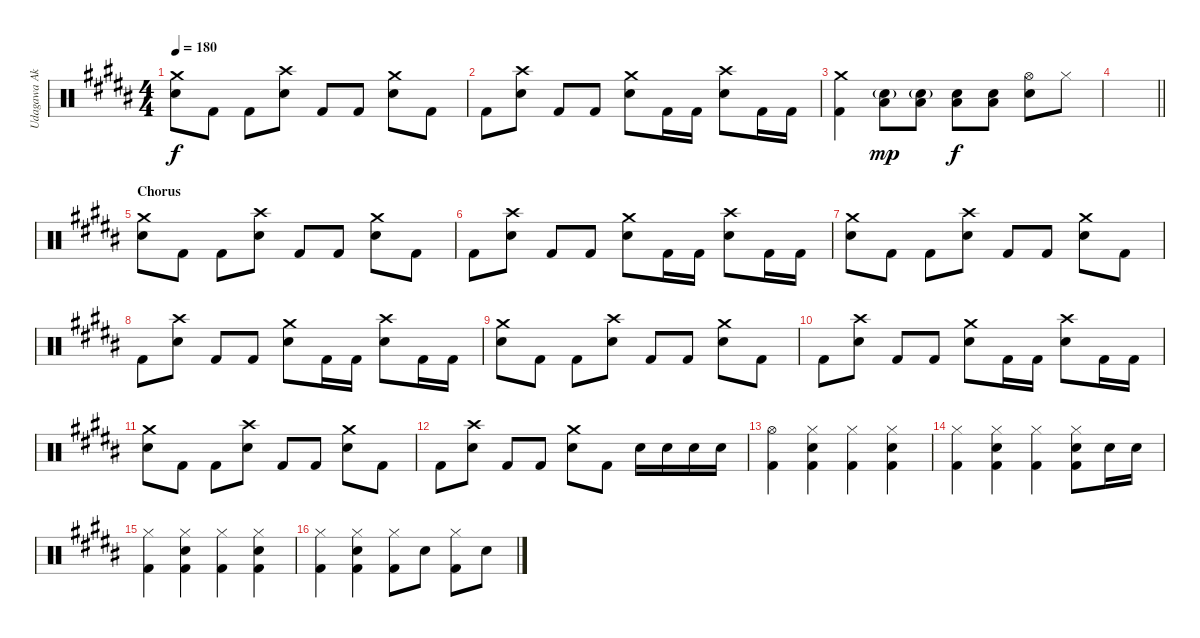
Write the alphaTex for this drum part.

\track ("Udagawa Ako" "Udagawa Ak") {instrument percussion}
\staff {score}
\articulation defaults
\ts (4 4)
\tempo 180
\clef neutral
\ks b
("Crash medium (hit)" "Electric Snare (hit)").8{dy f} "Kick (hit) 2".8 "Kick (hit) 2".8 ("Crash high (hit)" "Electric Snare (hit)").8 "Kick (hit) 2".8 "Kick (hit) 2".8 ("Crash medium (hit)" "Electric Snare (hit)").8 "Kick (hit) 2".8 |
"Kick (hit) 2".8 ("Crash high (hit)" "Electric Snare (hit)").8 "Kick (hit) 2".8 "Kick (hit) 2".8 ("Crash medium (hit)" "Electric Snare (hit)").8 "Kick (hit) 2".16 "Kick (hit) 2".16 ("Crash high (hit)" "Electric Snare (hit)").8 "Kick (hit) 2".16 "Kick (hit) 2".16 |
("Crash medium (hit)" "Kick (hit) 2").4 ("Low Floor Tom (hit)" "Electric Snare (hit)"{g}).8{dy mp} ("Low Floor Tom (hit)" "Electric Snare (hit)"{g}).8 ("Low Floor Tom (hit)" "Electric Snare (hit)").8{dy f} ("Low Floor Tom (hit)" "Electric Snare (hit)").8 ("Hi-Hat (open)" "Electric Snare (hit)").8 "Hi-Hat (closed)".8 |
\barLineRight lightlight
|
\section ("" "Chorus")
("Crash medium (hit)" "Electric Snare (hit)").8 "Kick (hit) 2".8 "Kick (hit) 2".8 ("Crash high (hit)" "Electric Snare (hit)").8 "Kick (hit) 2".8 "Kick (hit) 2".8 ("Crash medium (hit)" "Electric Snare (hit)").8 "Kick (hit) 2".8 |
"Kick (hit) 2".8 ("Crash high (hit)" "Electric Snare (hit)").8 "Kick (hit) 2".8 "Kick (hit) 2".8 ("Crash medium (hit)" "Electric Snare (hit)").8 "Kick (hit) 2".16 "Kick (hit) 2".16 ("Crash high (hit)" "Electric Snare (hit)").8 "Kick (hit) 2".16 "Kick (hit) 2".16 |
("Crash medium (hit)" "Electric Snare (hit)").8 "Kick (hit) 2".8 "Kick (hit) 2".8 ("Crash high (hit)" "Electric Snare (hit)").8 "Kick (hit) 2".8 "Kick (hit) 2".8 ("Crash medium (hit)" "Electric Snare (hit)").8 "Kick (hit) 2".8 |
"Kick (hit) 2".8 ("Crash high (hit)" "Electric Snare (hit)").8 "Kick (hit) 2".8 "Kick (hit) 2".8 ("Crash medium (hit)" "Electric Snare (hit)").8 "Kick (hit) 2".16 "Kick (hit) 2".16 ("Crash high (hit)" "Electric Snare (hit)").8 "Kick (hit) 2".16 "Kick (hit) 2".16 |
("Crash medium (hit)" "Electric Snare (hit)").8 "Kick (hit) 2".8 "Kick (hit) 2".8 ("Crash high (hit)" "Electric Snare (hit)").8 "Kick (hit) 2".8 "Kick (hit) 2".8 ("Crash medium (hit)" "Electric Snare (hit)").8 "Kick (hit) 2".8 |
"Kick (hit) 2".8 ("Crash high (hit)" "Electric Snare (hit)").8 "Kick (hit) 2".8 "Kick (hit) 2".8 ("Crash medium (hit)" "Electric Snare (hit)").8 "Kick (hit) 2".16 "Kick (hit) 2".16 ("Crash high (hit)" "Electric Snare (hit)").8 "Kick (hit) 2".16 "Kick (hit) 2".16 |
("Crash medium (hit)" "Electric Snare (hit)").8 "Kick (hit) 2".8 "Kick (hit) 2".8 ("Crash high (hit)" "Electric Snare (hit)").8 "Kick (hit) 2".8 "Kick (hit) 2".8 ("Crash medium (hit)" "Electric Snare (hit)").8 "Kick (hit) 2".8 |
"Kick (hit) 2".8 ("Crash high (hit)" "Electric Snare (hit)").8 "Kick (hit) 2".8 "Kick (hit) 2".8 ("Crash medium (hit)" "Electric Snare (hit)").8 "Kick (hit) 2".8 "Electric Snare (hit)".16 "Electric Snare (hit)".16 "Electric Snare (hit)".16 "Electric Snare (hit)".16 |
("Hi-Hat (open)" "Kick (hit) 2").4 ("Hi-Hat (closed)" "Electric Snare (hit)" "Kick (hit) 2").4 ("Hi-Hat (closed)" "Kick (hit) 2").4 ("Hi-Hat (closed)" "Electric Snare (hit)" "Kick (hit) 2").4 |
("Hi-Hat (closed)" "Kick (hit) 2").4 ("Hi-Hat (closed)" "Electric Snare (hit)" "Kick (hit) 2").4 ("Hi-Hat (closed)" "Kick (hit) 2").4 ("Hi-Hat (closed)" "Electric Snare (hit)" "Kick (hit) 2").8 "Electric Snare (hit)".16 "Electric Snare (hit)".16 |
("Hi-Hat (closed)" "Kick (hit) 2").4 ("Hi-Hat (closed)" "Electric Snare (hit)" "Kick (hit) 2").4 ("Hi-Hat (closed)" "Kick (hit) 2").4 ("Hi-Hat (closed)" "Electric Snare (hit)" "Kick (hit) 2").4 |
("Hi-Hat (closed)" "Kick (hit) 2").4 ("Hi-Hat (closed)" "Electric Snare (hit)" "Kick (hit) 2").4 ("Hi-Hat (closed)" "Kick (hit) 2").8 "Electric Snare (hit)".8 ("Hi-Hat (closed)" "Kick (hit) 2").8 "Electric Snare (hit)".8
